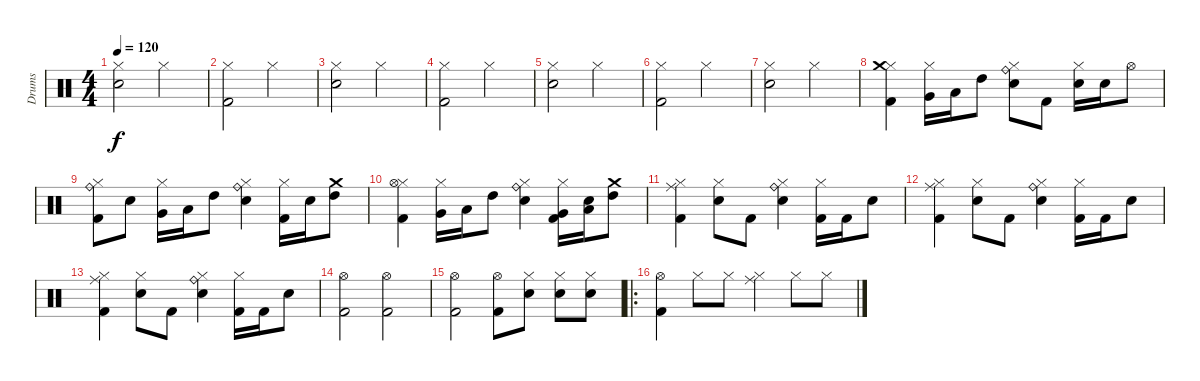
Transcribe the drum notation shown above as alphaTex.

\track ("Drums" "Drums") {instrument percussion}
\staff {score}
\articulation defaults
\ts (4 4)
\tempo 120
\clef neutral
\ks c
("Hi-Hat (closed)" "Electric Snare (hit)").2{dy f} "Hi-Hat (closed)".2 |
("Hi-Hat (closed)" "Kick (hit) 2").2 "Hi-Hat (closed)".2 |
("Hi-Hat (closed)" "Electric Snare (hit)").2 "Hi-Hat (closed)".2 |
("Hi-Hat (closed)" "Kick (hit) 2").2 "Hi-Hat (closed)".2 |
("Hi-Hat (closed)" "Electric Snare (hit)").2 "Hi-Hat (closed)".2 |
("Hi-Hat (closed)" "Kick (hit) 2").2 "Hi-Hat (closed)".2 |
("Hi-Hat (closed)" "Electric Snare (hit)").2 "Hi-Hat (closed)".2 |
("Hi-Hat (closed)" "Crash medium (hit)" "Kick (hit) 2").4 ("Hi-Hat (closed)" "Very Low Tom (hit)").16 "Low Tom (hit)".16 "High Tom (hit)".8 ("Hi-Hat (closed)" "Ride (bell)" "Electric Snare (hit)").8 "Kick (hit) 2".8 ("Hi-Hat (closed)" "Electric Snare (hit)").16 "Electric Snare (hit)".16 "Hi-Hat (open)".8 |
("Hi-Hat (closed)" "Ride (bell)" "Kick (hit) 2").8 "Electric Snare (hit)".8 ("Hi-Hat (closed)" "Very Low Tom (hit)").16 "Low Tom (hit)".16 "High Tom (hit)".8 ("Hi-Hat (closed)" "Ride (bell)" "Electric Snare (hit)").4 ("Hi-Hat (closed)" "Kick (hit) 2").16 "Electric Snare (hit)".16 ("Crash medium (hit)" "High Tom (hit)").8 |
("Hi-Hat (closed)" "Hi-Hat (open)" "Kick (hit) 2").4 ("Hi-Hat (closed)" "Very Low Tom (hit)").16 "Low Tom (hit)".16 "High Tom (hit)".8 ("Hi-Hat (closed)" "Ride (bell)" "Electric Snare (hit)").4 ("Hi-Hat (closed)" "Very Low Tom (hit)" "Kick (hit) 2").16 ("Low Tom (hit)" "Snare (hit) 2").16 ("Crash medium (hit)" "High Tom (hit)").8 |
("Hi-Hat (closed)" "Ride (middle)" "Kick (hit) 2").4 ("Hi-Hat (closed)" "Electric Snare (hit)").8 "Kick (hit) 2".8 ("Hi-Hat (closed)" "Ride (bell)" "Electric Snare (hit)").4 ("Hi-Hat (closed)" "Kick (hit) 2").16 "Kick (hit) 2".16 "Electric Snare (hit)".8 |
("Hi-Hat (closed)" "Ride (middle)" "Kick (hit) 2").4 ("Hi-Hat (closed)" "Electric Snare (hit)").8 "Kick (hit) 2".8 ("Hi-Hat (closed)" "Ride (bell)" "Electric Snare (hit)").4 ("Hi-Hat (closed)" "Kick (hit) 2").16 "Kick (hit) 2".16 "Electric Snare (hit)".8 |
("Hi-Hat (closed)" "Ride (middle)" "Kick (hit) 2").4 ("Hi-Hat (closed)" "Electric Snare (hit)").8 "Kick (hit) 2".8 ("Hi-Hat (closed)" "Ride (bell)" "Electric Snare (hit)").4 ("Hi-Hat (closed)" "Kick (hit) 2").16 "Kick (hit) 2".16 "Electric Snare (hit)".8 |
("Hi-Hat (open)" "Kick (hit) 2").2 ("Hi-Hat (open)" "Kick (hit) 2").2 |
("Hi-Hat (open)" "Kick (hit) 2").2 ("Hi-Hat (open)" "Kick (hit) 2").8 ("Hi-Hat (closed)" "Snare (hit) 2").8 ("Hi-Hat (closed)" "Snare (hit) 2").8 ("Hi-Hat (closed)" "Snare (hit) 2").8 |
\ro
("Hi-Hat (open)" "Kick (hit) 2").4 "Hi-Hat (closed)".8 "Hi-Hat (closed)".8 ("Hi-Hat (closed)" "Ride (middle)").4 "Hi-Hat (closed)".8 "Hi-Hat (closed)".8
